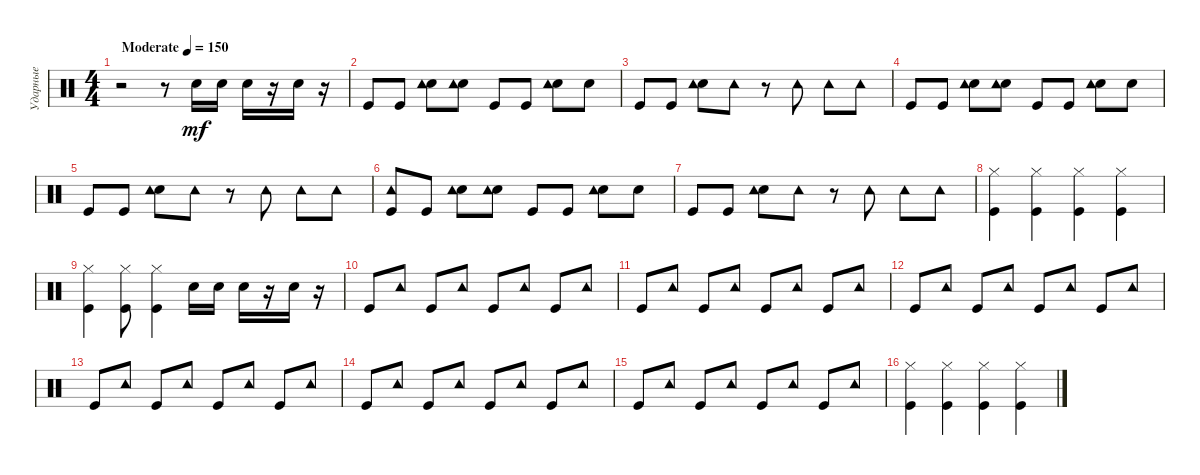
\track ("Ударные" "Ударные") {instrument percussion}
\staff {score}
\articulation defaults
\ts (4 4)
\tempo (150 "Moderate")
\clef neutral
\ks c
r.2{dy mf} r.8 "Electric Snare (hit)".16 "Electric Snare (hit)".16 "Electric Snare (hit)".16 r.16 "Electric Snare (hit)".16 r.16 |
"Kick (hit)".8 "Kick (hit)".8 ("Electric Snare (hit)" "Tambourine (hit)").8 ("Electric Snare (hit)" "Tambourine (hit)").8 "Kick (hit)".8 "Kick (hit)".8 ("Electric Snare (hit)" "Tambourine (hit)").8 "Electric Snare (hit)".8 |
"Kick (hit)".8 "Kick (hit)".8 ("Electric Snare (hit)" "Tambourine (hit)").8 "Tambourine (hit)".8 r.8 "Tambourine (hit)".8 "Tambourine (hit)".8 "Tambourine (hit)".8 |
"Kick (hit)".8 "Kick (hit)".8 ("Electric Snare (hit)" "Tambourine (hit)").8 ("Electric Snare (hit)" "Tambourine (hit)").8 "Kick (hit)".8 "Kick (hit)".8 ("Electric Snare (hit)" "Tambourine (hit)").8 "Electric Snare (hit)".8 |
"Kick (hit)".8 "Kick (hit)".8 ("Electric Snare (hit)" "Tambourine (hit)").8 "Tambourine (hit)".8 r.8 "Tambourine (hit)".8 "Tambourine (hit)".8 "Tambourine (hit)".8 |
("Kick (hit)" "Tambourine (hit)").8 "Kick (hit)".8 ("Electric Snare (hit)" "Tambourine (hit)").8 ("Electric Snare (hit)" "Tambourine (hit)").8 "Kick (hit)".8 "Kick (hit)".8 ("Electric Snare (hit)" "Tambourine (hit)").8 "Electric Snare (hit)".8 |
"Kick (hit)".8 "Kick (hit)".8 ("Electric Snare (hit)" "Tambourine (hit)").8 "Tambourine (hit)".8 r.8 "Tambourine (hit)".8 "Tambourine (hit)".8 "Tambourine (hit)".8 |
("Kick (hit)" "Hi-Hat (closed)").4 ("Kick (hit)" "Hi-Hat (closed)").4 ("Kick (hit)" "Hi-Hat (closed)").4 ("Kick (hit)" "Hi-Hat (closed)").4 |
("Kick (hit)" "Hi-Hat (closed)").4 ("Kick (hit)" "Hi-Hat (closed)").8 ("Kick (hit)" "Hi-Hat (closed)").4 "Electric Snare (hit)".16 "Electric Snare (hit)".16 "Electric Snare (hit)".16 r.16 "Electric Snare (hit)".16 r.16 |
"Kick (hit)".8 "Tambourine (hit)".8 "Kick (hit)".8 "Tambourine (hit)".8 "Kick (hit)".8 "Tambourine (hit)".8 "Kick (hit)".8 "Tambourine (hit)".8 |
"Kick (hit)".8 "Tambourine (hit)".8 "Kick (hit)".8 "Tambourine (hit)".8 "Kick (hit)".8 "Tambourine (hit)".8 "Kick (hit)".8 "Tambourine (hit)".8 |
"Kick (hit)".8 "Tambourine (hit)".8 "Kick (hit)".8 "Tambourine (hit)".8 "Kick (hit)".8 "Tambourine (hit)".8 "Kick (hit)".8 "Tambourine (hit)".8 |
"Kick (hit)".8 "Tambourine (hit)".8 "Kick (hit)".8 "Tambourine (hit)".8 "Kick (hit)".8 "Tambourine (hit)".8 "Kick (hit)".8 "Tambourine (hit)".8 |
"Kick (hit)".8 "Tambourine (hit)".8 "Kick (hit)".8 "Tambourine (hit)".8 "Kick (hit)".8 "Tambourine (hit)".8 "Kick (hit)".8 "Tambourine (hit)".8 |
"Kick (hit)".8 "Tambourine (hit)".8 "Kick (hit)".8 "Tambourine (hit)".8 "Kick (hit)".8 "Tambourine (hit)".8 "Kick (hit)".8 "Tambourine (hit)".8 |
("Kick (hit)" "Hi-Hat (closed)").4 ("Kick (hit)" "Hi-Hat (closed)").4 ("Kick (hit)" "Hi-Hat (closed)").4 ("Kick (hit)" "Hi-Hat (closed)").4
